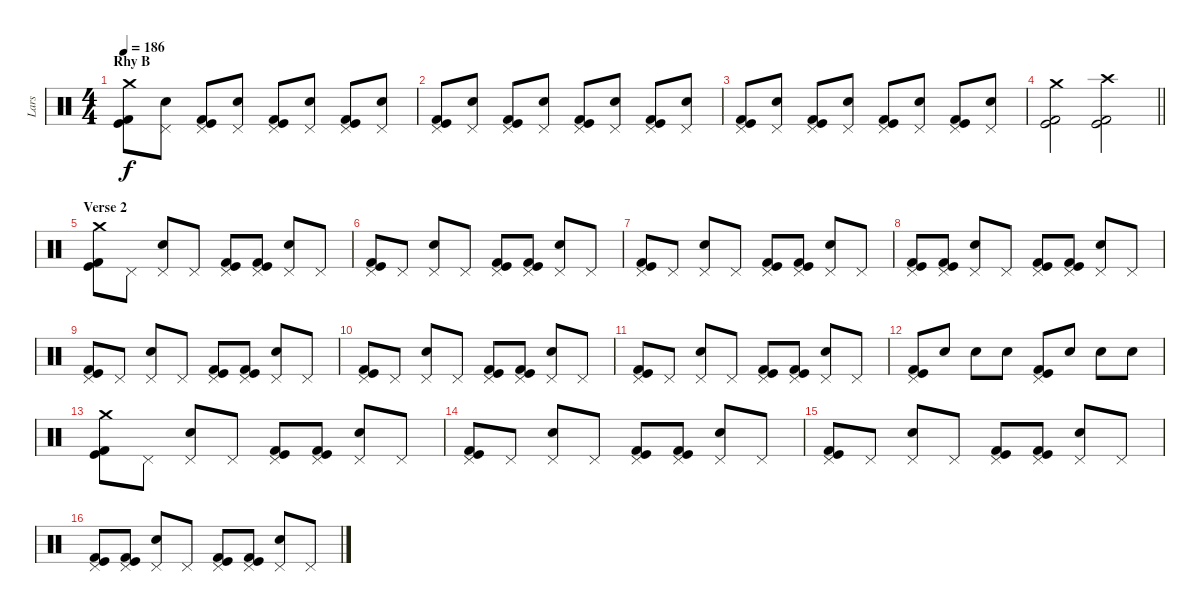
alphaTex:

\track ("Lars" "Lars") {instrument percussion}
\staff {score}
\articulation defaults
\ts (4 4)
\section ("" "Rhy B")
\tempo 186
\clef neutral
\ks c
("Crash medium (hit)" "Kick (hit)" "Kick (hit) 2").8{dy f} ("Pedal Hi-Hat (hit)" "Electric Snare (hit)").8 ("Pedal Hi-Hat (hit)" "Kick (hit)" "Kick (hit) 2").8 ("Pedal Hi-Hat (hit)" "Electric Snare (hit)").8 ("Pedal Hi-Hat (hit)" "Kick (hit)" "Kick (hit) 2").8 ("Pedal Hi-Hat (hit)" "Electric Snare (hit)").8 ("Pedal Hi-Hat (hit)" "Kick (hit)" "Kick (hit) 2").8 ("Pedal Hi-Hat (hit)" "Electric Snare (hit)").8 |
("Pedal Hi-Hat (hit)" "Kick (hit)" "Kick (hit) 2").8 ("Pedal Hi-Hat (hit)" "Electric Snare (hit)").8 ("Pedal Hi-Hat (hit)" "Kick (hit)" "Kick (hit) 2").8 ("Pedal Hi-Hat (hit)" "Electric Snare (hit)").8 ("Pedal Hi-Hat (hit)" "Kick (hit)" "Kick (hit) 2").8 ("Pedal Hi-Hat (hit)" "Electric Snare (hit)").8 ("Pedal Hi-Hat (hit)" "Kick (hit)" "Kick (hit) 2").8 ("Pedal Hi-Hat (hit)" "Electric Snare (hit)").8 |
("Pedal Hi-Hat (hit)" "Kick (hit)" "Kick (hit) 2").8 ("Pedal Hi-Hat (hit)" "Electric Snare (hit)").8 ("Pedal Hi-Hat (hit)" "Kick (hit)" "Kick (hit) 2").8 ("Pedal Hi-Hat (hit)" "Electric Snare (hit)").8 ("Pedal Hi-Hat (hit)" "Kick (hit)" "Kick (hit) 2").8 ("Pedal Hi-Hat (hit)" "Electric Snare (hit)").8 ("Pedal Hi-Hat (hit)" "Kick (hit)" "Kick (hit) 2").8 ("Pedal Hi-Hat (hit)" "Electric Snare (hit)").8 |
\barLineRight lightlight
("Crash medium (hit)" "Kick (hit)" "Kick (hit) 2").2 ("Crash high (hit)" "Kick (hit)" "Kick (hit) 2").2 |
\section ("" "Verse 2")
("Crash medium (hit)" "Kick (hit)" "Kick (hit) 2").8 "Pedal Hi-Hat (hit)".8 ("Pedal Hi-Hat (hit)" "Electric Snare (hit)").8 "Pedal Hi-Hat (hit)".8 ("Pedal Hi-Hat (hit)" "Kick (hit)" "Kick (hit) 2").8 ("Pedal Hi-Hat (hit)" "Kick (hit)" "Kick (hit) 2").8 ("Pedal Hi-Hat (hit)" "Electric Snare (hit)").8 "Pedal Hi-Hat (hit)".8 |
("Pedal Hi-Hat (hit)" "Kick (hit)" "Kick (hit) 2").8 "Pedal Hi-Hat (hit)".8 ("Pedal Hi-Hat (hit)" "Electric Snare (hit)").8 "Pedal Hi-Hat (hit)".8 ("Pedal Hi-Hat (hit)" "Kick (hit)" "Kick (hit) 2").8 ("Pedal Hi-Hat (hit)" "Kick (hit)" "Kick (hit) 2").8 ("Pedal Hi-Hat (hit)" "Electric Snare (hit)").8 "Pedal Hi-Hat (hit)".8 |
("Pedal Hi-Hat (hit)" "Kick (hit)" "Kick (hit) 2").8 "Pedal Hi-Hat (hit)".8 ("Pedal Hi-Hat (hit)" "Electric Snare (hit)").8 "Pedal Hi-Hat (hit)".8 ("Pedal Hi-Hat (hit)" "Kick (hit)" "Kick (hit) 2").8 ("Pedal Hi-Hat (hit)" "Kick (hit)" "Kick (hit) 2").8 ("Pedal Hi-Hat (hit)" "Electric Snare (hit)").8 "Pedal Hi-Hat (hit)".8 |
("Pedal Hi-Hat (hit)" "Kick (hit)" "Kick (hit) 2").8 ("Pedal Hi-Hat (hit)" "Kick (hit)" "Kick (hit) 2").8 ("Pedal Hi-Hat (hit)" "Electric Snare (hit)").8 "Pedal Hi-Hat (hit)".8 ("Pedal Hi-Hat (hit)" "Kick (hit)" "Kick (hit) 2").8 ("Pedal Hi-Hat (hit)" "Kick (hit)" "Kick (hit) 2").8 ("Pedal Hi-Hat (hit)" "Electric Snare (hit)").8 "Pedal Hi-Hat (hit)".8 |
("Pedal Hi-Hat (hit)" "Kick (hit)" "Kick (hit) 2").8 "Pedal Hi-Hat (hit)".8 ("Pedal Hi-Hat (hit)" "Electric Snare (hit)").8 "Pedal Hi-Hat (hit)".8 ("Pedal Hi-Hat (hit)" "Kick (hit)" "Kick (hit) 2").8 ("Pedal Hi-Hat (hit)" "Kick (hit)" "Kick (hit) 2").8 ("Pedal Hi-Hat (hit)" "Electric Snare (hit)").8 "Pedal Hi-Hat (hit)".8 |
("Pedal Hi-Hat (hit)" "Kick (hit)" "Kick (hit) 2").8 "Pedal Hi-Hat (hit)".8 ("Pedal Hi-Hat (hit)" "Electric Snare (hit)").8 "Pedal Hi-Hat (hit)".8 ("Pedal Hi-Hat (hit)" "Kick (hit)" "Kick (hit) 2").8 ("Pedal Hi-Hat (hit)" "Kick (hit)" "Kick (hit) 2").8 ("Pedal Hi-Hat (hit)" "Electric Snare (hit)").8 "Pedal Hi-Hat (hit)".8 |
("Pedal Hi-Hat (hit)" "Kick (hit)" "Kick (hit) 2").8 "Pedal Hi-Hat (hit)".8 ("Pedal Hi-Hat (hit)" "Electric Snare (hit)").8 "Pedal Hi-Hat (hit)".8 ("Pedal Hi-Hat (hit)" "Kick (hit)" "Kick (hit) 2").8 ("Pedal Hi-Hat (hit)" "Kick (hit)" "Kick (hit) 2").8 ("Pedal Hi-Hat (hit)" "Electric Snare (hit)").8 "Pedal Hi-Hat (hit)".8 |
("Pedal Hi-Hat (hit)" "Kick (hit)" "Kick (hit) 2").8 "Electric Snare (hit)".8 "Electric Snare (hit)".8 "Electric Snare (hit)".8 ("Pedal Hi-Hat (hit)" "Kick (hit)" "Kick (hit) 2").8 "Electric Snare (hit)".8 "Electric Snare (hit)".8 "Electric Snare (hit)".8 |
("Crash medium (hit)" "Kick (hit)" "Kick (hit) 2").8 "Pedal Hi-Hat (hit)".8 ("Pedal Hi-Hat (hit)" "Electric Snare (hit)").8 "Pedal Hi-Hat (hit)".8 ("Pedal Hi-Hat (hit)" "Kick (hit)" "Kick (hit) 2").8 ("Pedal Hi-Hat (hit)" "Kick (hit)" "Kick (hit) 2").8 ("Pedal Hi-Hat (hit)" "Electric Snare (hit)").8 "Pedal Hi-Hat (hit)".8 |
("Pedal Hi-Hat (hit)" "Kick (hit)" "Kick (hit) 2").8 "Pedal Hi-Hat (hit)".8 ("Pedal Hi-Hat (hit)" "Electric Snare (hit)").8 "Pedal Hi-Hat (hit)".8 ("Pedal Hi-Hat (hit)" "Kick (hit)" "Kick (hit) 2").8 ("Pedal Hi-Hat (hit)" "Kick (hit)" "Kick (hit) 2").8 ("Pedal Hi-Hat (hit)" "Electric Snare (hit)").8 "Pedal Hi-Hat (hit)".8 |
("Pedal Hi-Hat (hit)" "Kick (hit)" "Kick (hit) 2").8 "Pedal Hi-Hat (hit)".8 ("Pedal Hi-Hat (hit)" "Electric Snare (hit)").8 "Pedal Hi-Hat (hit)".8 ("Pedal Hi-Hat (hit)" "Kick (hit)" "Kick (hit) 2").8 ("Pedal Hi-Hat (hit)" "Kick (hit)" "Kick (hit) 2").8 ("Pedal Hi-Hat (hit)" "Electric Snare (hit)").8 "Pedal Hi-Hat (hit)".8 |
("Pedal Hi-Hat (hit)" "Kick (hit)" "Kick (hit) 2").8 ("Pedal Hi-Hat (hit)" "Kick (hit)" "Kick (hit) 2").8 ("Pedal Hi-Hat (hit)" "Electric Snare (hit)").8 "Pedal Hi-Hat (hit)".8 ("Pedal Hi-Hat (hit)" "Kick (hit)" "Kick (hit) 2").8 ("Pedal Hi-Hat (hit)" "Kick (hit)" "Kick (hit) 2").8 ("Pedal Hi-Hat (hit)" "Electric Snare (hit)").8 "Pedal Hi-Hat (hit)".8
